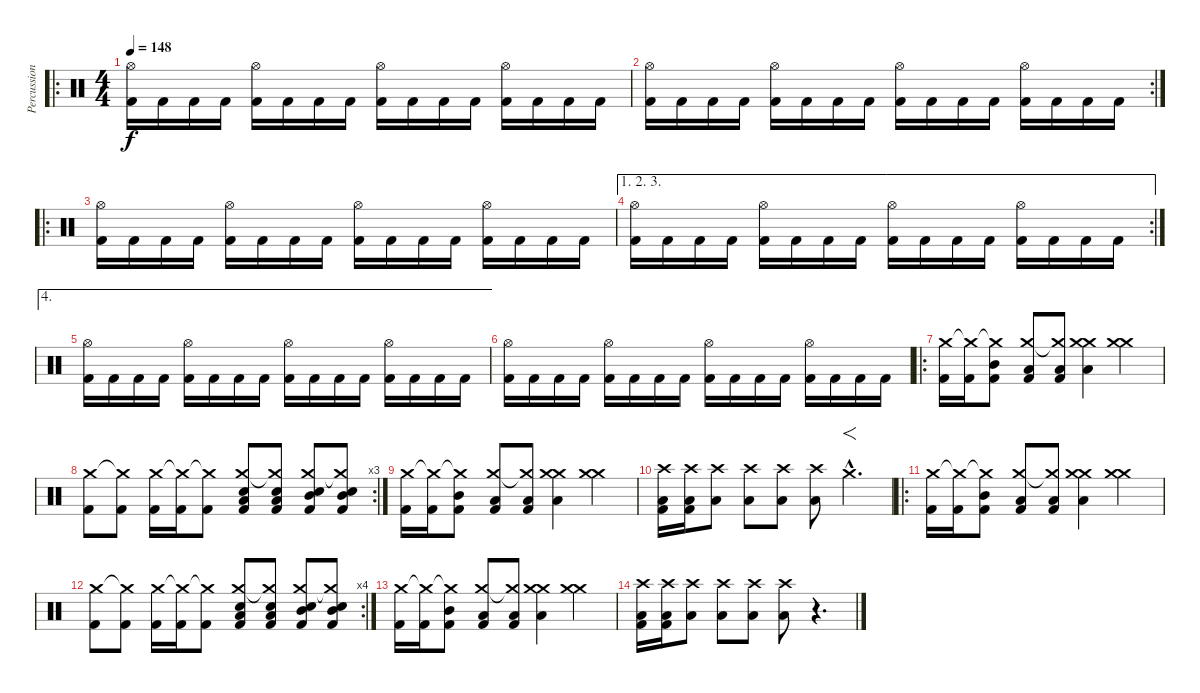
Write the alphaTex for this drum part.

\track ("Percussion" "Percussion") {instrument percussion}
\staff {score}
\articulation defaults
\ro
\ts (4 4)
\tempo 148
\clef neutral
\ks c
("Hi-Hat (open)" "Kick (hit) 2").16{dy f} "Kick (hit) 2".16 "Kick (hit) 2".16 "Kick (hit) 2".16 ("Hi-Hat (open)" "Kick (hit) 2").16 "Kick (hit) 2".16 "Kick (hit) 2".16 "Kick (hit) 2".16 ("Hi-Hat (open)" "Kick (hit) 2").16 "Kick (hit) 2".16 "Kick (hit) 2".16 "Kick (hit) 2".16 ("Hi-Hat (open)" "Kick (hit) 2").16 "Kick (hit) 2".16 "Kick (hit) 2".16 "Kick (hit) 2".16 |
\rc 2
("Hi-Hat (open)" "Kick (hit) 2").16 "Kick (hit) 2".16 "Kick (hit) 2".16 "Kick (hit) 2".16 ("Hi-Hat (open)" "Kick (hit) 2").16 "Kick (hit) 2".16 "Kick (hit) 2".16 "Kick (hit) 2".16 ("Hi-Hat (open)" "Kick (hit) 2").16 "Kick (hit) 2".16 "Kick (hit) 2".16 "Kick (hit) 2".16 ("Hi-Hat (open)" "Kick (hit) 2").16 "Kick (hit) 2".16 "Kick (hit) 2".16 "Kick (hit) 2".16 |
\ro
("Hi-Hat (open)" "Kick (hit) 2").16 "Kick (hit) 2".16 "Kick (hit) 2".16 "Kick (hit) 2".16 ("Hi-Hat (open)" "Kick (hit) 2").16 "Kick (hit) 2".16 "Kick (hit) 2".16 "Kick (hit) 2".16 ("Hi-Hat (open)" "Kick (hit) 2").16 "Kick (hit) 2".16 "Kick (hit) 2".16 "Kick (hit) 2".16 ("Hi-Hat (open)" "Kick (hit) 2").16 "Kick (hit) 2".16 "Kick (hit) 2".16 "Kick (hit) 2".16 |
\ae (1 2 3)
\rc 2
("Hi-Hat (open)" "Kick (hit) 2").16 "Kick (hit) 2".16 "Kick (hit) 2".16 "Kick (hit) 2".16 ("Hi-Hat (open)" "Kick (hit) 2").16 "Kick (hit) 2".16 "Kick (hit) 2".16 "Kick (hit) 2".16 ("Hi-Hat (open)" "Kick (hit) 2").16 "Kick (hit) 2".16 "Kick (hit) 2".16 "Kick (hit) 2".16 ("Hi-Hat (open)" "Kick (hit) 2").16 "Kick (hit) 2".16 "Kick (hit) 2".16 "Kick (hit) 2".16 |
\ae 4
("Hi-Hat (open)" "Kick (hit) 2").16 "Kick (hit) 2".16 "Kick (hit) 2".16 "Kick (hit) 2".16 ("Hi-Hat (open)" "Kick (hit) 2").16 "Kick (hit) 2".16 "Kick (hit) 2".16 "Kick (hit) 2".16 ("Hi-Hat (open)" "Kick (hit) 2").16 "Kick (hit) 2".16 "Kick (hit) 2".16 "Kick (hit) 2".16 ("Hi-Hat (open)" "Kick (hit) 2").16 "Kick (hit) 2".16 "Kick (hit) 2".16 "Kick (hit) 2".16 |
("Hi-Hat (open)" "Kick (hit) 2").16 "Kick (hit) 2".16 "Kick (hit) 2".16 "Kick (hit) 2".16 ("Hi-Hat (open)" "Kick (hit) 2").16 "Kick (hit) 2".16 "Kick (hit) 2".16 "Kick (hit) 2".16 ("Hi-Hat (open)" "Kick (hit) 2").16 "Kick (hit) 2".16 "Kick (hit) 2".16 "Kick (hit) 2".16 ("Hi-Hat (open)" "Kick (hit) 2").16 "Kick (hit) 2".16 "Kick (hit) 2".16 "Kick (hit) 2".16 |
\ro
("Crash medium (hit)" "Kick (hit) 2").16 ("Crash medium (hit)"{t} "Kick (hit) 2").16 ("Crash medium (hit)"{t} "Mid Tom (hit)" "Kick (hit) 2").8 ("Crash medium (hit)" "Kick (hit) 2" "Low Tom (hit)").8 ("Crash medium (hit)"{t} "Kick (hit) 2" "Low Tom (hit)").8 ("Crash medium (hit)" "Low Tom (hit)" "Crash medium (hit)").4 ("Crash medium (hit)" "Crash medium (hit)").4 |
\rc 3
("Crash medium (hit)" "Kick (hit) 2").8 ("Crash medium (hit)"{t} "Kick (hit) 2").8 ("Crash medium (hit)" "Kick (hit) 2").16 ("Crash medium (hit)"{t} "Kick (hit) 2").16 ("Crash medium (hit)"{t} "Kick (hit) 2").8 ("Snare (hit) 2" "Crash medium (hit)" "Kick (hit) 2" "Low Tom (hit)").8 ("Snare (hit) 2" "Crash medium (hit)"{t} "Kick (hit) 2" "Low Tom (hit)").8 ("Electric Snare (hit)" "Crash medium (hit)" "Kick (hit) 2" "Mid Tom (hit)").8 ("Electric Snare (hit)" "Crash medium (hit)"{t} "Kick (hit) 2" "Mid Tom (hit)").8 |
("Crash medium (hit)" "Kick (hit) 2").16 ("Crash medium (hit)"{t} "Kick (hit) 2").16 ("Crash medium (hit)"{t} "Mid Tom (hit)" "Kick (hit) 2").8 ("Crash medium (hit)" "Kick (hit) 2" "Low Tom (hit)").8 ("Crash medium (hit)"{t} "Kick (hit) 2" "Low Tom (hit)").8 ("Crash medium (hit)" "Low Tom (hit)" "Crash medium (hit)").4 ("Crash medium (hit)" "Crash medium (hit)").4 |
("Crash high (hit)" "Low Tom (hit)" "Kick (hit) 2").16 ("Crash high (hit)" "Low Tom (hit)" "Kick (hit) 2").16 ("Crash high (hit)" "Low Floor Tom (hit)").8 ("Crash high (hit)" "Low Floor Tom (hit)").8 ("Crash high (hit)" "Low Tom (hit)").8 ("Crash high (hit)" "Low Tom (hit)").8 "Crash medium (hit)"{hac}.4{f d} |
\ro
("Crash medium (hit)" "Kick (hit) 2").16 ("Crash medium (hit)"{t} "Kick (hit) 2").16 ("Crash medium (hit)"{t} "Mid Tom (hit)" "Kick (hit) 2").8 ("Crash medium (hit)" "Kick (hit) 2" "Low Tom (hit)").8 ("Crash medium (hit)"{t} "Kick (hit) 2" "Low Tom (hit)").8 ("Crash medium (hit)" "Low Tom (hit)" "Crash medium (hit)").4 ("Crash medium (hit)" "Crash medium (hit)").4 |
\rc 4
("Crash medium (hit)" "Kick (hit) 2").8 ("Crash medium (hit)"{t} "Kick (hit) 2").8 ("Crash medium (hit)" "Kick (hit) 2").16 ("Crash medium (hit)"{t} "Kick (hit) 2").16 ("Crash medium (hit)"{t} "Kick (hit) 2").8 ("Snare (hit) 2" "Crash medium (hit)" "Kick (hit) 2" "Low Tom (hit)").8 ("Snare (hit) 2" "Crash medium (hit)"{t} "Kick (hit) 2" "Low Tom (hit)").8 ("Electric Snare (hit)" "Crash medium (hit)" "Kick (hit) 2" "Mid Tom (hit)").8 ("Electric Snare (hit)" "Crash medium (hit)"{t} "Kick (hit) 2" "Mid Tom (hit)").8 |
("Crash medium (hit)" "Kick (hit) 2").16 ("Crash medium (hit)"{t} "Kick (hit) 2").16 ("Crash medium (hit)"{t} "Mid Tom (hit)" "Kick (hit) 2").8 ("Crash medium (hit)" "Kick (hit) 2" "Low Tom (hit)").8 ("Crash medium (hit)"{t} "Kick (hit) 2" "Low Tom (hit)").8 ("Crash medium (hit)" "Low Tom (hit)" "Crash medium (hit)").4 ("Crash medium (hit)" "Crash medium (hit)").4 |
("Crash high (hit)" "Low Tom (hit)" "Kick (hit) 2").16 ("Crash high (hit)" "Low Tom (hit)" "Kick (hit) 2").16 ("Crash high (hit)" "Low Floor Tom (hit)").8 ("Crash high (hit)" "Low Floor Tom (hit)").8 ("Crash high (hit)" "Low Tom (hit)").8 ("Crash high (hit)" "Low Tom (hit)").8 r.4{d}
